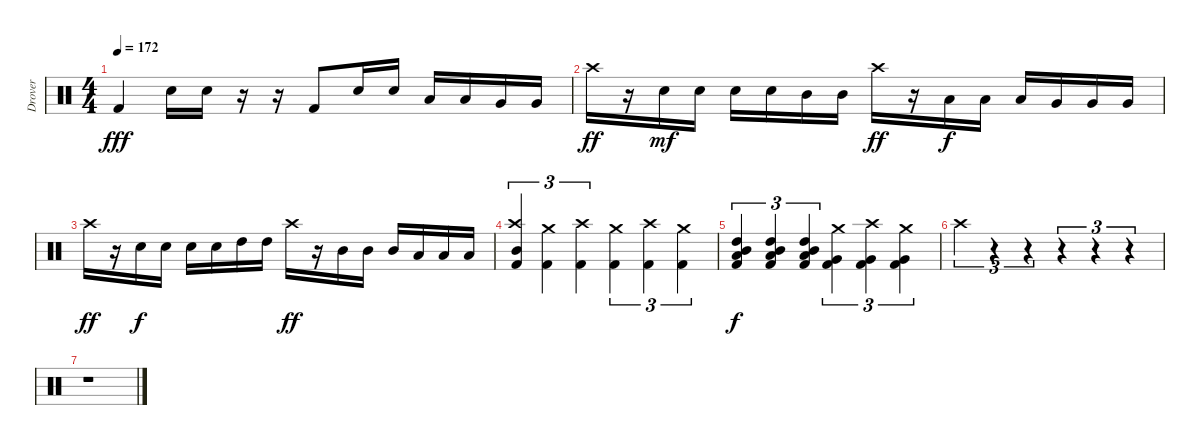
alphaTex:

\track ("Drover" "Drover") {instrument percussion}
\staff {score}
\articulation defaults
\ts (4 4)
\tempo 172
\clef neutral
\ks c "Kick (hit) 2".4{dy fff} "Electric Snare (hit)".16 "Electric Snare (hit)".16
r.16 r.16 "Kick (hit) 2".8 "Electric Snare (hit)".16 "Electric Snare (hit)".16 "Low Tom (hit)".16 "Low Tom (hit)".16 "Very Low Tom (hit)".16 "Very Low Tom (hit)".16 |
"Crash high (hit)".16{dy ff} r.16 "Electric Snare (hit)".16{dy mf} "Electric Snare (hit)".16 "Electric Snare (hit)".16 "Electric Snare (hit)".16 "Mid Tom (hit)".16 "Mid Tom (hit)".16 "Crash high (hit)".16{dy ff} r.16 "Low Tom (hit)".16{dy f} "Low Tom (hit)".16 "Low Tom (hit)".16 "Very Low Tom (hit)".16 "Very Low Tom (hit)".16 "Very Low Tom (hit)".16 |
"Crash high (hit)".16{dy ff} r.16 "Electric Snare (hit)".16{dy f} "Electric Snare (hit)".16 "Electric Snare (hit)".16 "Electric Snare (hit)".16 "High Tom (hit)".16 "High Tom (hit)".16 "Crash high (hit)".16{dy ff} r.16 "Mid Tom (hit)".16 "Mid Tom (hit)".16 "Mid Tom (hit)".16 "Low Tom (hit)".16 "Low Tom (hit)".16 "Low Tom (hit)".16 |
("Crash high (hit)" "Mid Tom (hit)" "Kick (hit) 2").4{tu (3 2)} ("Crash medium (hit)" "Kick (hit) 2").4{tu (3 2)} ("Crash high (hit)" "Kick (hit) 2").4{tu (3 2)} ("Crash medium (hit)" "Kick (hit) 2").4{tu (3 2)} ("Crash high (hit)" "Kick (hit) 2").4{tu (3 2)} ("Crash medium (hit)" "Kick (hit) 2").4{tu (3 2)} |
("High Tom (hit)" "Mid Tom (hit)" "Low Tom (hit)" "Kick (hit) 2").4{tu (3 2) dy f} ("High Tom (hit)" "Mid Tom (hit)" "Low Tom (hit)" "Kick (hit) 2").4{tu (3 2)} ("High Tom (hit)" "Mid Tom (hit)" "Low Tom (hit)" "Kick (hit) 2").4{tu (3 2)} ("Crash medium (hit)" "Very Low Tom (hit)" "Kick (hit) 2").4{tu (3 2)} ("Crash high (hit)" "Very Low Tom (hit)" "Kick (hit) 2").4{tu (3 2)} ("Crash medium (hit)" "Very Low Tom (hit)" "Kick (hit) 2").4{tu (3 2)} |
"Crash high (hit)".4{tu (3 2)} r.4{tu (3 2)} r.4{tu (3 2)} r.4{tu (3 2)} r.4{tu (3 2)} r.4{tu (3 2)} |
r.1
